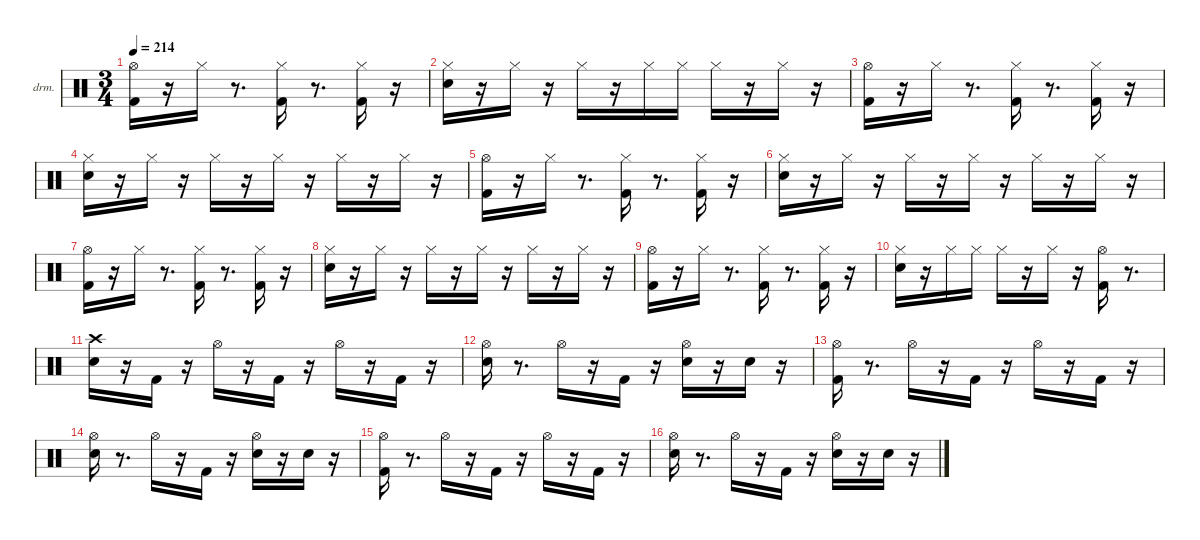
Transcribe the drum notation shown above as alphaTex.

\hideDynamics
\bracketExtendMode nobrackets
\firstSystemTrackNameOrientation horizontal
\track ("EZdrummer 3" "drm.") {instrument percussion}
\staff {score}
\articulation defaults
\ts (3 4)
\tempo 214
\clef neutral
\ks aminor
("Kick (hit) 2" "Hi-Hat (open)"{acc #}).16{dy ff} r.16 "Hi-Hat (closed)"{acc #}.16 r.8{d} ("Kick (hit) 2" "Hi-Hat (closed)"{acc #}).16{dy p} r.8{d} ("Kick (hit) 2" "Hi-Hat (closed)"{acc #}).16{dy mf} r.16 |
("Snare (hit) 2" "Hi-Hat (closed)"{acc #}).16{dy ff} r.16 "Hi-Hat (closed)"{acc #}.16{dy ppp} r.16 "Hi-Hat (closed)"{acc #}.16{dy ff} r.16 "Hi-Hat (closed)"{acc #}.16{dy mf} "Hi-Hat (closed)"{acc #}.16{dy mp} "Hi-Hat (closed)"{acc #}.16{dy ff} r.16 "Hi-Hat (closed)"{acc #}.16{dy ppp} r.16 |
("Kick (hit) 2" "Hi-Hat (open)"{acc #}).16{dy ff} r.16 "Hi-Hat (closed)"{acc #}.16 r.8{d} ("Kick (hit) 2" "Hi-Hat (closed)"{acc #}).16{dy mp} r.8{d} ("Kick (hit) 2" "Hi-Hat (closed)"{acc #}).16{dy mf} r.16 |
("Snare (hit) 2" "Hi-Hat (closed)"{acc #}).16{dy ff} r.16 "Hi-Hat (closed)"{acc #}.16{dy ppp} r.16 "Hi-Hat (closed)"{acc #}.16{dy mp} r.16 "Hi-Hat (closed)"{acc #}.16{dy ppp} r.16 "Hi-Hat (closed)"{acc #}.16{dy mp} r.16 "Hi-Hat (closed)"{acc #}.16{dy ppp} r.16 |
("Kick (hit) 2" "Hi-Hat (open)"{acc #}).16{dy ff} r.16 "Hi-Hat (closed)"{acc #}.16 r.8{d} ("Kick (hit) 2" "Hi-Hat (closed)"{acc #}).16{dy mp} r.8{d} ("Kick (hit) 2" "Hi-Hat (closed)"{acc #}).16{dy mf} r.16 |
("Snare (hit) 2" "Hi-Hat (closed)"{acc #}).16{dy ff} r.16 "Hi-Hat (closed)"{acc #}.16{dy ppp} r.16 "Hi-Hat (closed)"{acc #}.16{dy mp} r.16 "Hi-Hat (closed)"{acc #}.16{dy ppp} r.16 "Hi-Hat (closed)"{acc #}.16{dy mp} r.16 "Hi-Hat (closed)"{acc #}.16{dy ppp} r.16 |
("Kick (hit) 2" "Hi-Hat (open)"{acc #}).16{dy ff} r.16 "Hi-Hat (closed)"{acc #}.16 r.8{d} ("Kick (hit) 2" "Hi-Hat (closed)"{acc #}).16{dy mp} r.8{d} ("Kick (hit) 2" "Hi-Hat (closed)"{acc #}).16{dy mf} r.16 |
("Snare (hit) 2" "Hi-Hat (closed)"{acc #}).16{dy ff} r.16 "Hi-Hat (closed)"{acc #}.16{dy ppp} r.16 "Hi-Hat (closed)"{acc #}.16{dy mp} r.16 "Hi-Hat (closed)"{acc #}.16{dy ppp} r.16 "Hi-Hat (closed)"{acc #}.16{dy mp} r.16 "Hi-Hat (closed)"{acc #}.16{dy ppp} r.16 |
("Kick (hit) 2" "Hi-Hat (open)"{acc #}).16{dy ff} r.16 "Hi-Hat (closed)"{acc #}.16 r.8{d} ("Kick (hit) 2" "Hi-Hat (closed)"{acc #}).16{dy mp} r.8{d} ("Kick (hit) 2" "Hi-Hat (closed)"{acc #}).16{dy mf} r.16 |
("Snare (hit) 2" "Hi-Hat (closed)"{acc #}).16{dy ff} r.16 "Hi-Hat (closed)"{acc #}.16{dy f} "Hi-Hat (closed)"{acc #}.16{dy mp} "Hi-Hat (closed)"{acc #}.16{dy ff} r.16 "Hi-Hat (closed)"{acc #}.16{dy p} r.16 ("Kick (hit) 2" "Hi-Hat (open)"{acc #}).16{dy ff} r.8{d} |
("Snare (hit) 2" "Crash high (hit)"{acc #}).16{dy f} r.16 "Kick (hit) 2".16 r.16 "Hi-Hat (open)"{acc #}.16{dy mf} r.16 "Kick (hit) 2".16{dy p} r.16 "Hi-Hat (open)"{acc #}.16{dy mp} r.16 "Kick (hit) 2".16{dy mf} r.16 |
("Snare (hit) 2" "Hi-Hat (open)"{acc #}).16 r.8{d} "Hi-Hat (open)"{acc #}.16 r.16 "Kick (hit) 2".16{dy f} r.16 ("Snare (hit) 2" "Hi-Hat (open)"{acc #}).16{dy mp} r.16 "Snare (hit) 2".16{dy pp} r.16 |
("Kick (hit) 2" "Hi-Hat (open)"{acc #}).16{dy ff} r.8{d} "Hi-Hat (open)"{acc #}.16{dy mf} r.16 "Kick (hit) 2".16{dy p} r.16 "Hi-Hat (open)"{acc #}.16{dy mp} r.16 "Kick (hit) 2".16{dy mf} r.16 |
("Snare (hit) 2" "Hi-Hat (open)"{acc #}).16 r.8{d} "Hi-Hat (open)"{acc #}.16{dy mp} r.16 "Kick (hit) 2".16{dy f} r.16 ("Snare (hit) 2" "Hi-Hat (open)"{acc #}).16{dy mp} r.16 "Snare (hit) 2".16{dy pp} r.16 |
("Kick (hit) 2" "Hi-Hat (open)"{acc #}).16{dy fff} r.8{d} "Hi-Hat (open)"{acc #}.16{dy mf} r.16 "Kick (hit) 2".16{dy p} r.16 "Hi-Hat (open)"{acc #}.16{dy mp} r.16 "Kick (hit) 2".16{dy mf} r.16 |
("Snare (hit) 2" "Hi-Hat (open)"{acc #}).16 r.8{d} "Hi-Hat (open)"{acc #}.16 r.16 "Kick (hit) 2".16{dy f} r.16 ("Snare (hit) 2" "Hi-Hat (open)"{acc #}).16{dy mp} r.16 "Snare (hit) 2".16{dy pp} r.16
